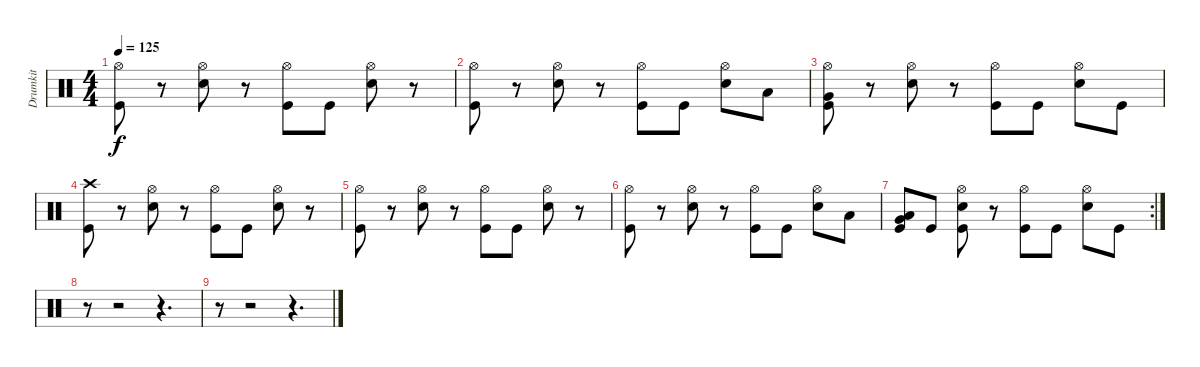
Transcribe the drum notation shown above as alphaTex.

\track ("Drumkit" "Drumkit") {instrument percussion}
\staff {score}
\articulation defaults
\ts (4 4)
\tempo 125
\clef neutral
\ks c
("Hi-Hat (open)" "Kick (hit)").8{dy f} r.8 ("Hi-Hat (open)" "Snare (hit) 2").8 r.8 ("Hi-Hat (open)" "Kick (hit)").8 "Kick (hit)".8 ("Hi-Hat (open)" "Snare (hit) 2").8 r.8 |
("Hi-Hat (open)" "Kick (hit)").8 r.8 ("Hi-Hat (open)" "Snare (hit) 2").8 r.8 ("Hi-Hat (open)" "Kick (hit)").8 "Kick (hit)".8 ("Hi-Hat (open)" "Snare (hit) 2").8 "Low Tom (hit)".8 |
("Hi-Hat (open)" "Very Low Tom (hit)" "Kick (hit)").8 r.8 ("Hi-Hat (open)" "Snare (hit) 2").8 r.8 ("Hi-Hat (open)" "Kick (hit)").8 "Kick (hit)".8 ("Hi-Hat (open)" "Snare (hit) 2").8 "Kick (hit)".8 |
("Crash high (hit)" "Kick (hit)").8 r.8 ("Hi-Hat (open)" "Snare (hit) 2").8 r.8 ("Hi-Hat (open)" "Kick (hit)").8 "Kick (hit)".8 ("Hi-Hat (open)" "Snare (hit) 2").8 r.8 |
("Hi-Hat (open)" "Kick (hit)").8 r.8 ("Hi-Hat (open)" "Snare (hit) 2").8 r.8 ("Hi-Hat (open)" "Kick (hit)").8 "Kick (hit)".8 ("Hi-Hat (open)" "Snare (hit) 2").8 r.8 |
("Hi-Hat (open)" "Kick (hit)").8 r.8 ("Hi-Hat (open)" "Snare (hit) 2").8 r.8 ("Hi-Hat (open)" "Kick (hit)").8 "Kick (hit)".8 ("Hi-Hat (open)" "Snare (hit) 2").8 "Low Tom (hit)".8 |
\rc 2
("Very Low Tom (hit)" "Low Tom (hit)" "Kick (hit)").8 "Kick (hit)".8 ("Hi-Hat (open)" "Snare (hit) 2" "Kick (hit)").8 r.8 ("Hi-Hat (open)" "Kick (hit)").8 "Kick (hit)".8 ("Hi-Hat (open)" "Snare (hit) 2").8 "Kick (hit)".8 |
r.8 r.2 r.4{d} |
r.8 r.2 r.4{d}
